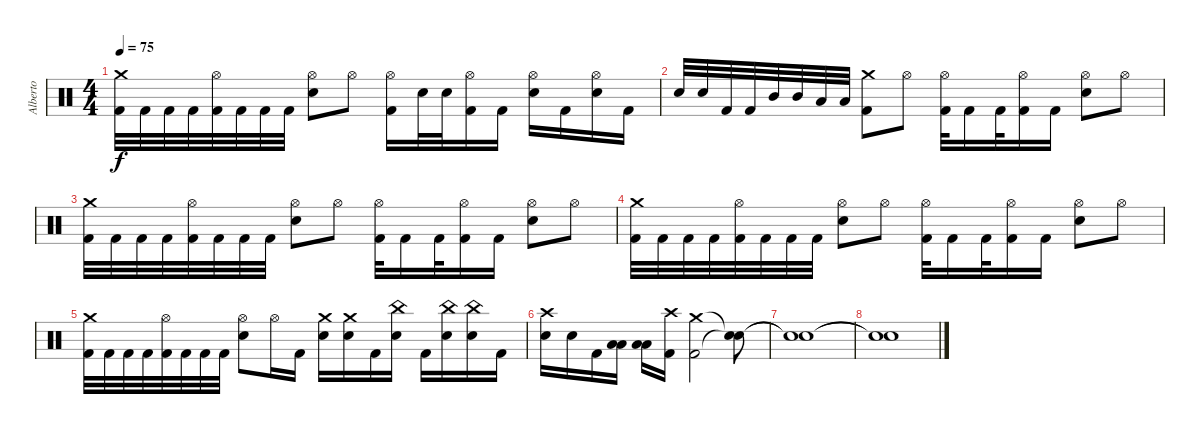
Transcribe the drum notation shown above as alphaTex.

\track ("Alberto" "Alberto") {instrument percussion}
\staff
\articulation defaults
\ts (4 4)
\tempo 75
\clef neutral
\ks c
("Crash medium (hit)" "Kick (hit) 2").32{dy f} "Kick (hit) 2".32 "Kick (hit) 2".32 "Kick (hit) 2".32 ("Hi-Hat (open)" "Kick (hit) 2").32 "Kick (hit) 2".32 "Kick (hit) 2".32 "Kick (hit) 2".32 ("Hi-Hat (open)" "Electric Snare (hit)").8 "Hi-Hat (open)".8 ("Hi-Hat (open)" "Kick (hit) 2").16 "Electric Snare (hit)".32 "Electric Snare (hit)".32 ("Hi-Hat (open)" "Kick (hit) 2").16 "Kick (hit) 2".16 ("Hi-Hat (open)" "Electric Snare (hit)").16 "Kick (hit) 2".16 ("Hi-Hat (open)" "Electric Snare (hit)").16 "Kick (hit) 2".16 |
"Electric Snare (hit)".32 "Electric Snare (hit)".32 "Kick (hit) 2".32 "Kick (hit) 2".32 "Mid Tom (hit)".32 "Mid Tom (hit)".32 "Low Tom (hit)".32 "Low Tom (hit)".32 ("Crash medium (hit)" "Kick (hit) 2").8 "Hi-Hat (open)".8 ("Hi-Hat (open)" "Kick (hit) 2").32 "Kick (hit) 2".16 "Kick (hit) 2".32 ("Hi-Hat (open)" "Kick (hit) 2").16 "Kick (hit) 2".16 ("Hi-Hat (open)" "Electric Snare (hit)").8 "Hi-Hat (open)".8 |
("Crash medium (hit)" "Kick (hit) 2").32 "Kick (hit) 2".32 "Kick (hit) 2".32 "Kick (hit) 2".32 ("Hi-Hat (open)" "Kick (hit) 2").32 "Kick (hit) 2".32 "Kick (hit) 2".32 "Kick (hit) 2".32 ("Hi-Hat (open)" "Electric Snare (hit)").8 "Hi-Hat (open)".8 ("Hi-Hat (open)" "Kick (hit) 2").32 "Kick (hit) 2".16 "Kick (hit) 2".32 ("Hi-Hat (open)" "Kick (hit) 2").16 "Kick (hit) 2".16 ("Hi-Hat (open)" "Electric Snare (hit)").8 "Hi-Hat (open)".8 |
("Crash medium (hit)" "Kick (hit) 2").32 "Kick (hit) 2".32 "Kick (hit) 2".32 "Kick (hit) 2".32 ("Hi-Hat (open)" "Kick (hit) 2").32 "Kick (hit) 2".32 "Kick (hit) 2".32 "Kick (hit) 2".32 ("Hi-Hat (open)" "Electric Snare (hit)").8 "Hi-Hat (open)".8 ("Hi-Hat (open)" "Kick (hit) 2").32 "Kick (hit) 2".16 "Kick (hit) 2".32 ("Hi-Hat (open)" "Kick (hit) 2").16 "Kick (hit) 2".16 ("Hi-Hat (open)" "Electric Snare (hit)").8 "Hi-Hat (open)".8 |
("Crash medium (hit)" "Kick (hit) 2").32 "Kick (hit) 2".32 "Kick (hit) 2".32 "Kick (hit) 2".32 ("Hi-Hat (open)" "Kick (hit) 2").32 "Kick (hit) 2".32 "Kick (hit) 2".32 "Kick (hit) 2".32 ("Hi-Hat (open)" "Electric Snare (hit)").8 "Hi-Hat (open)".16 "Kick (hit) 2".16 ("Crash medium (hit)" "Electric Snare (hit)").16 ("Crash medium (hit)" "Electric Snare (hit)").16 "Kick (hit) 2".16 ("China (hit)" "Electric Snare (hit)").16 "Kick (hit) 2".16 ("China (hit)" "Electric Snare (hit)").16 ("China (hit)" "Electric Snare (hit)").16 "Kick (hit) 2".16 |
("Crash high (hit)" "Electric Snare (hit)").16 "Electric Snare (hit)".16 "Kick (hit) 2".16 ("Low Tom (hit)" "Low Floor Tom (hit)").16 ("Low Tom (hit)" "Low Floor Tom (hit)").16 ("Crash high (hit)" "Kick (hit) 2").16 ("Crash medium (hit)" "Kick (hit) 2").2 ("Snare (hit)"{t} "Snare (hit)"{t}).8 |
("Snare (hit)"{t} "Snare (hit)"{t}).1 |
("Snare (hit)"{t} "Snare (hit)"{t}).1
